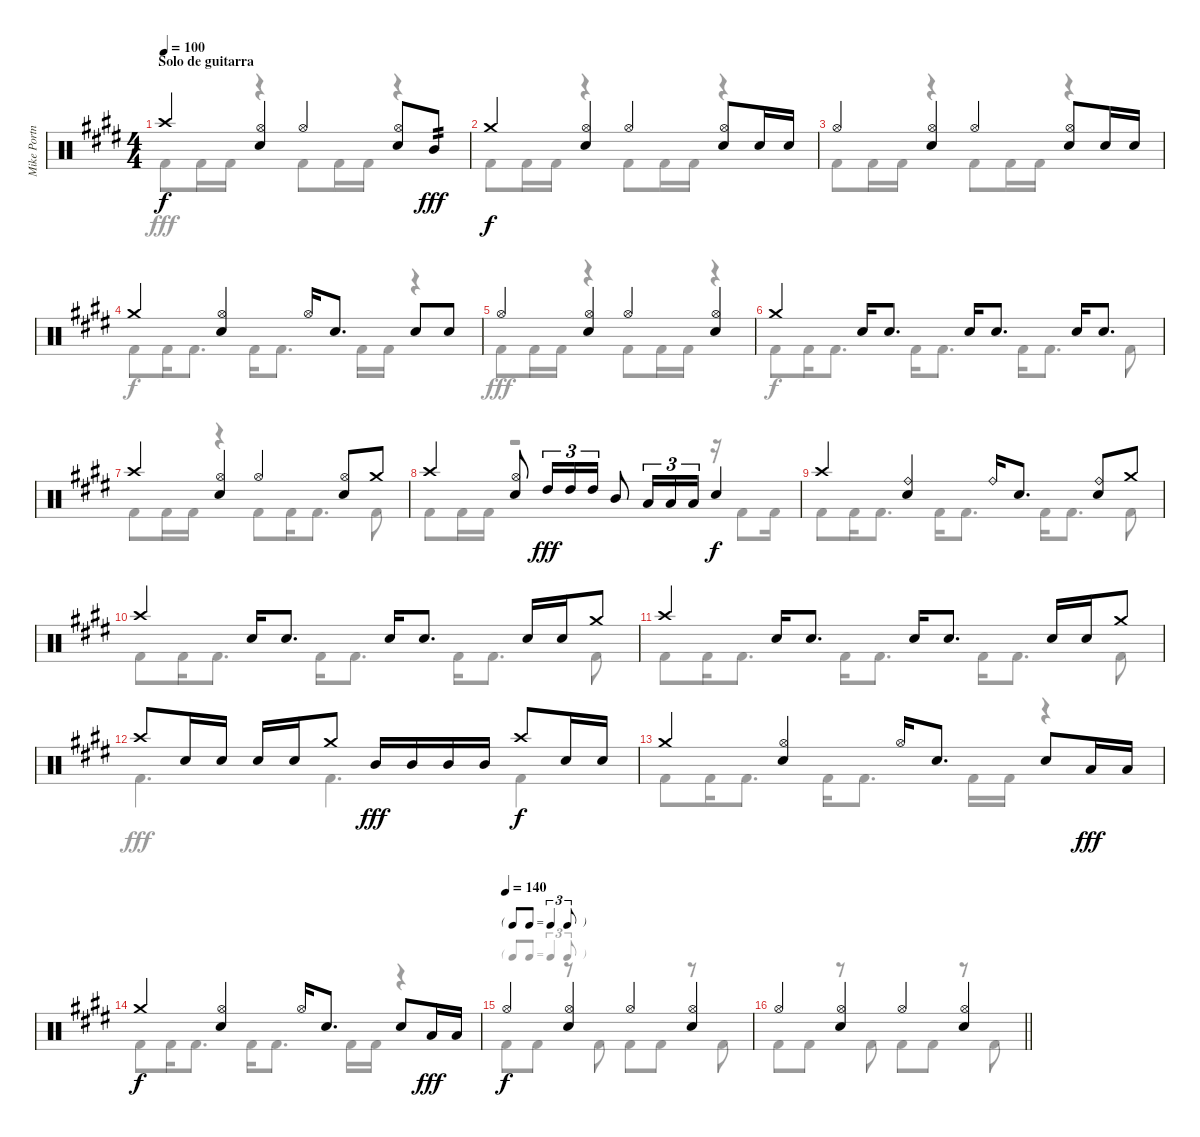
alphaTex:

\track ("Mike Portnoy" "Mike Portn") {instrument percussion}
\staff {score}
\articulation defaults
\voice
\ts (4 4)
\section ("" "Solo de guitarra")
\tempo 100
\clef neutral
\ks e "Crash high (hit)".4{dy f}
("Hi-Hat (open)" "Snare (hit) 2").4 "Hi-Hat (open)".4 ("Hi-Hat (open)" "Snare (hit) 2").8 "Mid Tom (hit)".8{tp 2 dy fff} |
"Crash medium (hit)".4{dy f} ("Hi-Hat (open)" "Snare (hit) 2").4 "Hi-Hat (open)".4 ("Hi-Hat (open)" "Snare (hit) 2").8 "Snare (hit) 2".16 "Snare (hit) 2".16 |
"Hi-Hat (open)".4 ("Hi-Hat (open)" "Snare (hit) 2").4 "Hi-Hat (open)".4 ("Hi-Hat (open)" "Snare (hit) 2").8 "Snare (hit) 2".16 "Snare (hit) 2".16 |
"Crash medium (hit)".4 ("Hi-Hat (open)" "Snare (hit) 2").4 "Hi-Hat (open)".16 "Snare (hit) 2".8{d} "Snare (hit) 2".8 "Snare (hit) 2".8 |
"Hi-Hat (open)".4 ("Hi-Hat (open)" "Snare (hit) 2").4 "Hi-Hat (open)".4 ("Hi-Hat (open)" "Snare (hit) 2").4 |
"Crash medium (hit)".4 "Snare (hit) 2".16 "Snare (hit) 2".8{d} "Snare (hit) 2".16 "Snare (hit) 2".8{d} "Snare (hit) 2".16 "Snare (hit) 2".8{d} |
"Crash high (hit)".4 ("Hi-Hat (open)" "Snare (hit) 2").4 "Hi-Hat (open)".4 ("Hi-Hat (open)" "Snare (hit) 2").8 "Crash medium (hit)".8 |
"Crash high (hit)".4 ("Hi-Hat (open)" "Snare (hit) 2").8 "High Tom (hit)".16{tu (3 2) dy fff volume 16} "High Tom (hit)".16{tu (3 2)} "High Tom (hit)".16{tu (3 2)} "Mid Tom (hit)".8 "Low Tom (hit)".16{tu (3 2)} "Low Tom (hit)".16{tu (3 2)} "Low Tom (hit)".16{tu (3 2)} "Snare (hit) 2".4{dy f volume 13} |
"Crash high (hit)".4 ("Ride (bell)" "Snare (hit) 2").4 "Ride (bell)".16 "Snare (hit) 2".8{d} ("Ride (bell)" "Snare (hit) 2").8 "Crash medium (hit)".8 |
"Crash high (hit)".4 "Snare (hit) 2".16 "Snare (hit) 2".8{d} "Snare (hit) 2".16 "Snare (hit) 2".8{d} "Snare (hit) 2".16 "Snare (hit) 2".16 "Crash medium (hit)".8 |
"Crash high (hit)".4 "Snare (hit) 2".16 "Snare (hit) 2".8{d} "Snare (hit) 2".16 "Snare (hit) 2".8{d} "Snare (hit) 2".16 "Snare (hit) 2".16 "Crash medium (hit)".8 |
"Crash high (hit)".8 "Snare (hit) 2".16 "Snare (hit) 2".16 "Snare (hit) 2".16 "Snare (hit) 2".16 "Crash medium (hit)".8 "Mid Tom (hit)".16{dy fff volume 16} "Mid Tom (hit)".16 "Mid Tom (hit)".16 "Mid Tom (hit)".16 "Crash high (hit)".8{dy f volume 13} "Snare (hit) 2".16 "Snare (hit) 2".16 |
"Crash medium (hit)".4 ("Hi-Hat (open)" "Snare (hit) 2").4 "Hi-Hat (open)".16 "Snare (hit) 2".8{d} "Snare (hit) 2".8 "Low Tom (hit)".16{dy fff} "Low Tom (hit)".16 |
"Crash medium (hit)".4{dy f} ("Hi-Hat (open)" "Snare (hit) 2").4 "Hi-Hat (open)".16 "Snare (hit) 2".8{d} "Snare (hit) 2".8 "Low Tom (hit)".16{dy fff} "Low Tom (hit)".16 |
\tf triplet8th
\tempo (140)
"Hi-Hat (open)".4{dy f} ("Hi-Hat (open)" "Snare (hit) 2").4 "Hi-Hat (open)".4 ("Hi-Hat (open)" "Snare (hit) 2").4 |
\barLineRight lightlight "Hi-Hat (open)".4
("Hi-Hat (open)" "Snare (hit) 2").4 "Hi-Hat (open)".4 ("Hi-Hat (open)" "Snare (hit) 2").4
\voice
\clef neutral
\ottava regular
\simile none
\ks e "Kick (hit) 2".8{dy fff} "Kick (hit) 2".16 "Kick (hit) 2".16
r.4 "Kick (hit) 2".8 "Kick (hit) 2".16 "Kick (hit) 2".16 r.4 |
"Kick (hit) 2".8 "Kick (hit) 2".16 "Kick (hit) 2".16 r.4 "Kick (hit) 2".8 "Kick (hit) 2".16 "Kick (hit) 2".16 r.4 |
"Kick (hit) 2".8 "Kick (hit) 2".16 "Kick (hit) 2".16 r.4 "Kick (hit) 2".8 "Kick (hit) 2".16 "Kick (hit) 2".16 r.4 |
"Kick (hit) 2".8{dy f} "Kick (hit) 2".16 "Kick (hit) 2".8{d} "Kick (hit) 2".16 "Kick (hit) 2".8{d} "Kick (hit) 2".16 "Kick (hit) 2".16 r.4 |
"Kick (hit) 2".8{dy fff} "Kick (hit) 2".16 "Kick (hit) 2".16 r.4 "Kick (hit) 2".8 "Kick (hit) 2".16 "Kick (hit) 2".16 r.4 |
"Kick (hit) 2".8{dy f} "Kick (hit) 2".16 "Kick (hit) 2".8{d} "Kick (hit) 2".16 "Kick (hit) 2".8{d} "Kick (hit) 2".16 "Kick (hit) 2".8{d} "Kick (hit) 2".8 |
"Kick (hit) 2".8 "Kick (hit) 2".16 "Kick (hit) 2".16 r.4 "Kick (hit) 2".8 "Kick (hit) 2".16 "Kick (hit) 2".8{d} "Kick (hit) 2".8 |
"Kick (hit) 2".8 "Kick (hit) 2".16 "Kick (hit) 2".16 r.2 r.16 "Kick (hit) 2".8 "Kick (hit) 2".16 |
"Kick (hit) 2".8 "Kick (hit) 2".16 "Kick (hit) 2".8{d} "Kick (hit) 2".16 "Kick (hit) 2".8{d} "Kick (hit) 2".16 "Kick (hit) 2".8{d} "Kick (hit) 2".8 |
"Kick (hit) 2".8 "Kick (hit) 2".16 "Kick (hit) 2".8{d} "Kick (hit) 2".16 "Kick (hit) 2".8{d} "Kick (hit) 2".16 "Kick (hit) 2".8{d} "Kick (hit) 2".8 |
"Kick (hit) 2".8 "Kick (hit) 2".16 "Kick (hit) 2".8{d} "Kick (hit) 2".16 "Kick (hit) 2".8{d} "Kick (hit) 2".16 "Kick (hit) 2".8{d} "Kick (hit) 2".8 |
"Kick (hit) 2".4{d dy fff} "Kick (hit) 2".4{d} "Kick (hit) 2".4 |
"Kick (hit) 2".8 "Kick (hit) 2".16 "Kick (hit) 2".8{d} "Kick (hit) 2".16 "Kick (hit) 2".8{d} "Kick (hit) 2".16 "Kick (hit) 2".16 r.4 |
"Kick (hit) 2".8 "Kick (hit) 2".16 "Kick (hit) 2".8{d} "Kick (hit) 2".16 "Kick (hit) 2".8{d} "Kick (hit) 2".16 "Kick (hit) 2".16 r.4 |
"Kick (hit) 2".8{dy f} "Kick (hit) 2".8 r.8 "Kick (hit) 2".8 "Kick (hit) 2".8 "Kick (hit) 2".8 r.8 "Kick (hit) 2".8 |
\barLineRight lightlight "Kick (hit) 2".8 "Kick (hit) 2".8
r.8 "Kick (hit) 2".8 "Kick (hit) 2".8 "Kick (hit) 2".8 r.8 "Kick (hit) 2".8
